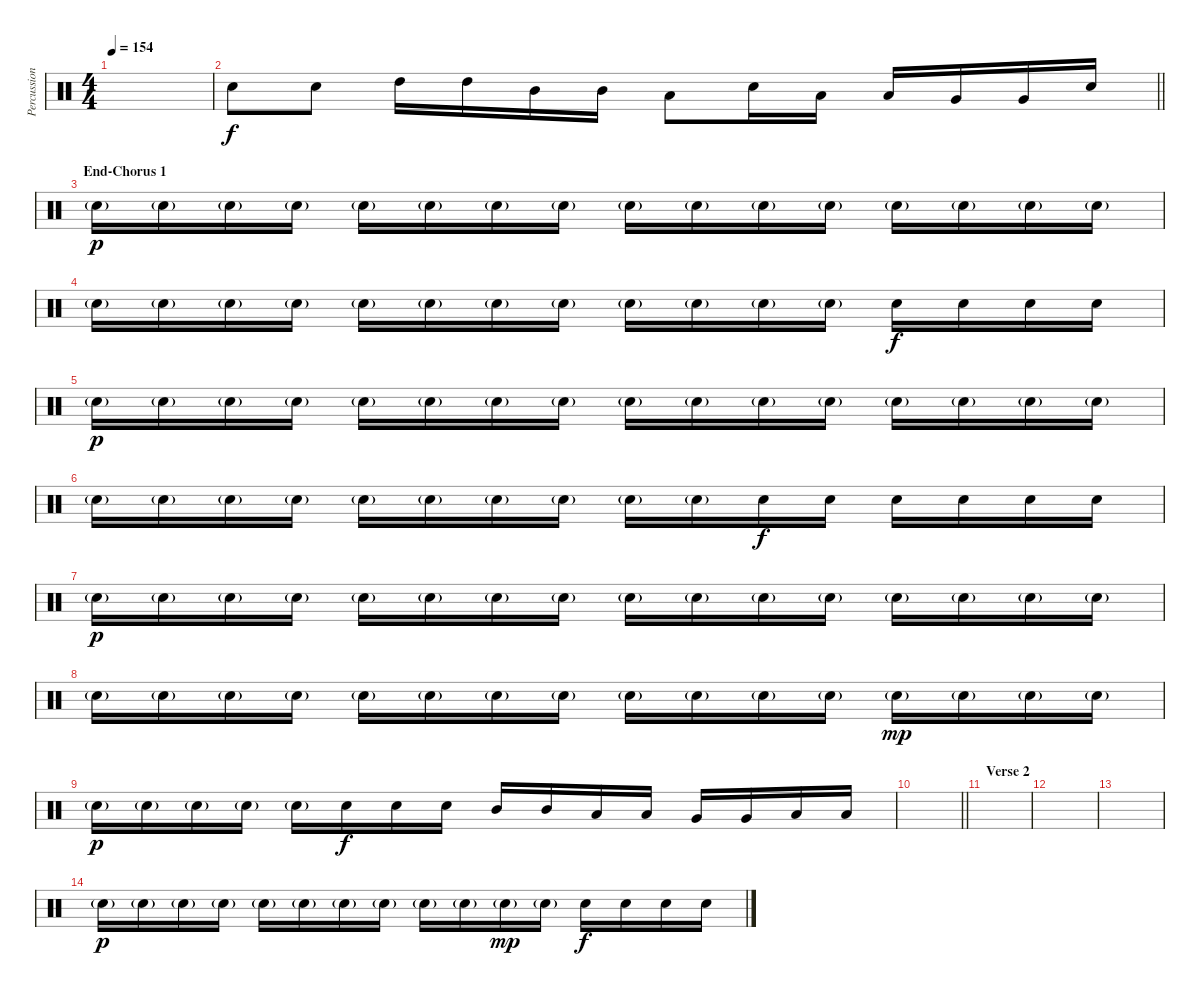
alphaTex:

\track ("Percussion" "Percussion") {instrument percussion}
\staff {score}
\articulation defaults
\ts (4 4)
\tempo 154
\clef neutral
\ks c
|
\barLineRight lightlight "Snare (hit) 2".8 "Snare (hit) 2".8 "High Tom (hit)".16 "High Tom (hit)".16 "Mid Tom (hit)".16 "Mid Tom (hit)".16 "Low Tom (hit)".8 "Snare (hit) 2".16 "Low Tom (hit)".16 "Low Tom (hit)".16 "Very Low Tom (hit)".16 "Very Low Tom (hit)".16 "Snare (hit) 2".16
|
\section ("" "End-Chorus 1")
"Snare (hit) 2"{g}.16{dy p} "Snare (hit) 2"{g}.16 "Snare (hit) 2"{g}.16 "Snare (hit) 2"{g}.16 "Snare (hit) 2"{g}.16 "Snare (hit) 2"{g}.16 "Snare (hit) 2"{g}.16 "Snare (hit) 2"{g}.16 "Snare (hit) 2"{g}.16 "Snare (hit) 2"{g}.16 "Snare (hit) 2"{g}.16 "Snare (hit) 2"{g}.16 "Snare (hit) 2"{g}.16 "Snare (hit) 2"{g}.16 "Snare (hit) 2"{g}.16 "Snare (hit) 2"{g}.16 |
"Snare (hit) 2"{g}.16 "Snare (hit) 2"{g}.16 "Snare (hit) 2"{g}.16 "Snare (hit) 2"{g}.16 "Snare (hit) 2"{g}.16 "Snare (hit) 2"{g}.16 "Snare (hit) 2"{g}.16 "Snare (hit) 2"{g}.16 "Snare (hit) 2"{g}.16 "Snare (hit) 2"{g}.16 "Snare (hit) 2"{g}.16 "Snare (hit) 2"{g}.16 "Snare (hit) 2".16{dy f} "Snare (hit) 2".16 "Snare (hit) 2".16 "Snare (hit) 2".16 |
"Snare (hit) 2"{g}.16{dy p} "Snare (hit) 2"{g}.16 "Snare (hit) 2"{g}.16 "Snare (hit) 2"{g}.16 "Snare (hit) 2"{g}.16 "Snare (hit) 2"{g}.16 "Snare (hit) 2"{g}.16 "Snare (hit) 2"{g}.16 "Snare (hit) 2"{g}.16 "Snare (hit) 2"{g}.16 "Snare (hit) 2"{g}.16 "Snare (hit) 2"{g}.16 "Snare (hit) 2"{g}.16 "Snare (hit) 2"{g}.16 "Snare (hit) 2"{g}.16 "Snare (hit) 2"{g}.16 |
"Snare (hit) 2"{g}.16 "Snare (hit) 2"{g}.16 "Snare (hit) 2"{g}.16 "Snare (hit) 2"{g}.16 "Snare (hit) 2"{g}.16 "Snare (hit) 2"{g}.16 "Snare (hit) 2"{g}.16 "Snare (hit) 2"{g}.16 "Snare (hit) 2"{g}.16 "Snare (hit) 2"{g}.16 "Snare (hit) 2".16{dy f} "Snare (hit) 2".16 "Snare (hit) 2".16 "Snare (hit) 2".16 "Snare (hit) 2".16 "Snare (hit) 2".16 |
"Snare (hit) 2"{g}.16{dy p} "Snare (hit) 2"{g}.16 "Snare (hit) 2"{g}.16 "Snare (hit) 2"{g}.16 "Snare (hit) 2"{g}.16 "Snare (hit) 2"{g}.16 "Snare (hit) 2"{g}.16 "Snare (hit) 2"{g}.16 "Snare (hit) 2"{g}.16 "Snare (hit) 2"{g}.16 "Snare (hit) 2"{g}.16 "Snare (hit) 2"{g}.16 "Snare (hit) 2"{g}.16 "Snare (hit) 2"{g}.16 "Snare (hit) 2"{g}.16 "Snare (hit) 2"{g}.16 |
"Snare (hit) 2"{g}.16 "Snare (hit) 2"{g}.16 "Snare (hit) 2"{g}.16 "Snare (hit) 2"{g}.16 "Snare (hit) 2"{g}.16 "Snare (hit) 2"{g}.16 "Snare (hit) 2"{g}.16 "Snare (hit) 2"{g}.16 "Snare (hit) 2"{g}.16 "Snare (hit) 2"{g}.16 "Snare (hit) 2"{g}.16 "Snare (hit) 2"{g}.16 "Snare (hit) 2"{g}.16{dy mp} "Snare (hit) 2"{g}.16 "Snare (hit) 2"{g}.16 "Snare (hit) 2"{g}.16 |
"Snare (hit) 2"{g}.16{dy p} "Snare (hit) 2"{g}.16 "Snare (hit) 2"{g}.16 "Snare (hit) 2"{g}.16 "Snare (hit) 2"{g}.16 "Snare (hit) 2".16{dy f} "Snare (hit) 2".16 "Snare (hit) 2".16 "Mid Tom (hit)".16 "Mid Tom (hit)".16 "Low Tom (hit)".16 "Low Tom (hit)".16 "Very Low Tom (hit)".16 "Very Low Tom (hit)".16 "Low Floor Tom (hit)".16 "Low Floor Tom (hit)".16 |
\barLineRight lightlight
|
\section ("" "Verse 2")
|
|
|
"Snare (hit) 2"{g}.16{dy p} "Snare (hit) 2"{g}.16 "Snare (hit) 2"{g}.16 "Snare (hit) 2"{g}.16 "Snare (hit) 2"{g}.16 "Snare (hit) 2"{g}.16 "Snare (hit) 2"{g}.16 "Snare (hit) 2"{g}.16 "Snare (hit) 2"{g}.16 "Snare (hit) 2"{g}.16 "Snare (hit) 2"{g}.16{dy mp} "Snare (hit) 2"{g}.16 "Snare (hit) 2".16{dy f} "Snare (hit) 2".16 "Snare (hit) 2".16 "Snare (hit) 2".16
